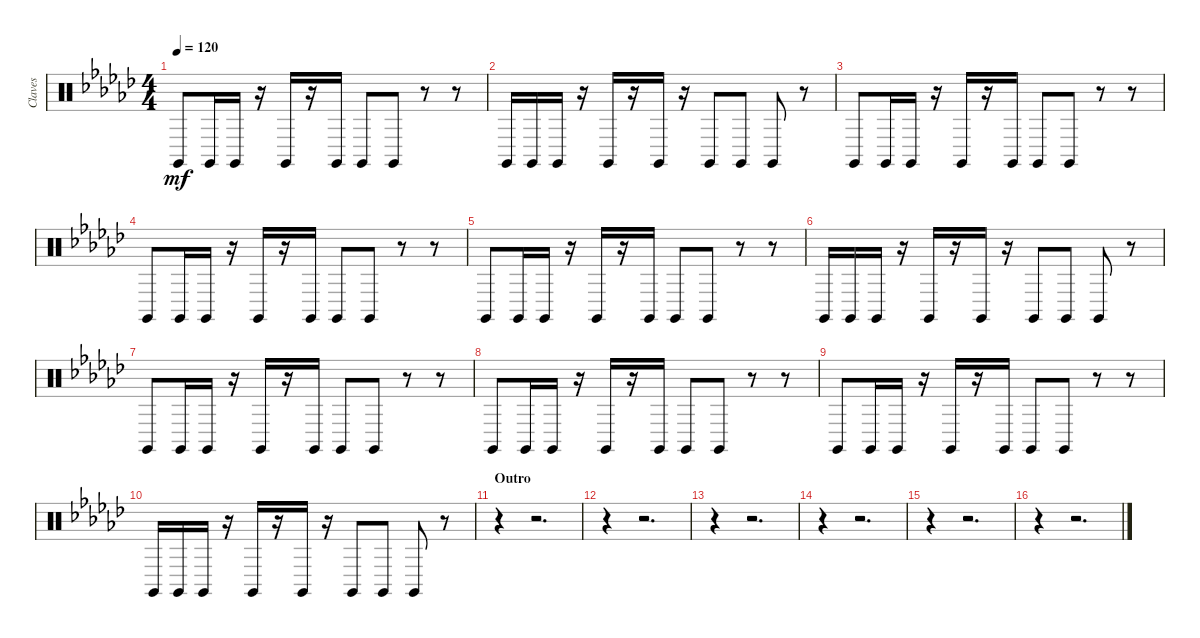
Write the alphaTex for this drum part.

\track ("Claves" "Claves") {instrument percussion}
\staff {score}
\articulation defaults
\ts (4 4)
\tempo 120
\clef neutral
\ks ebminor "Claves (hit)".8{dy mf} "Claves (hit)".16 "Claves (hit)".16
r.16 "Claves (hit)".16 r.16 "Claves (hit)".16 "Claves (hit)".8 "Claves (hit)".8 r.8 r.8 |
"Claves (hit)".16 "Claves (hit)".16 "Claves (hit)".16 r.16 "Claves (hit)".16 r.16 "Claves (hit)".16 r.16 "Claves (hit)".8 "Claves (hit)".8 "Claves (hit)".8 r.8 |
"Claves (hit)".8 "Claves (hit)".16 "Claves (hit)".16 r.16 "Claves (hit)".16 r.16 "Claves (hit)".16 "Claves (hit)".8 "Claves (hit)".8 r.8 r.8 |
"Claves (hit)".8 "Claves (hit)".16 "Claves (hit)".16 r.16 "Claves (hit)".16 r.16 "Claves (hit)".16 "Claves (hit)".8 "Claves (hit)".8 r.8 r.8 |
"Claves (hit)".8 "Claves (hit)".16 "Claves (hit)".16 r.16 "Claves (hit)".16 r.16 "Claves (hit)".16 "Claves (hit)".8 "Claves (hit)".8 r.8 r.8 |
"Claves (hit)".16 "Claves (hit)".16 "Claves (hit)".16 r.16 "Claves (hit)".16 r.16 "Claves (hit)".16 r.16 "Claves (hit)".8 "Claves (hit)".8 "Claves (hit)".8 r.8 |
"Claves (hit)".8 "Claves (hit)".16 "Claves (hit)".16 r.16 "Claves (hit)".16 r.16 "Claves (hit)".16 "Claves (hit)".8 "Claves (hit)".8 r.8 r.8 |
"Claves (hit)".8 "Claves (hit)".16 "Claves (hit)".16 r.16 "Claves (hit)".16 r.16 "Claves (hit)".16 "Claves (hit)".8 "Claves (hit)".8 r.8 r.8 |
"Claves (hit)".8 "Claves (hit)".16 "Claves (hit)".16 r.16 "Claves (hit)".16 r.16 "Claves (hit)".16 "Claves (hit)".8 "Claves (hit)".8 r.8 r.8 |
"Claves (hit)".16 "Claves (hit)".16 "Claves (hit)".16 r.16 "Claves (hit)".16 r.16 "Claves (hit)".16 r.16 "Claves (hit)".8 "Claves (hit)".8 "Claves (hit)".8 r.8 |
\section ("" "Outro")
r.4 r.2{d} |
r.4 r.2{d} |
r.4 r.2{d} |
r.4 r.2{d} |
r.4 r.2{d} |
r.4 r.2{d}
